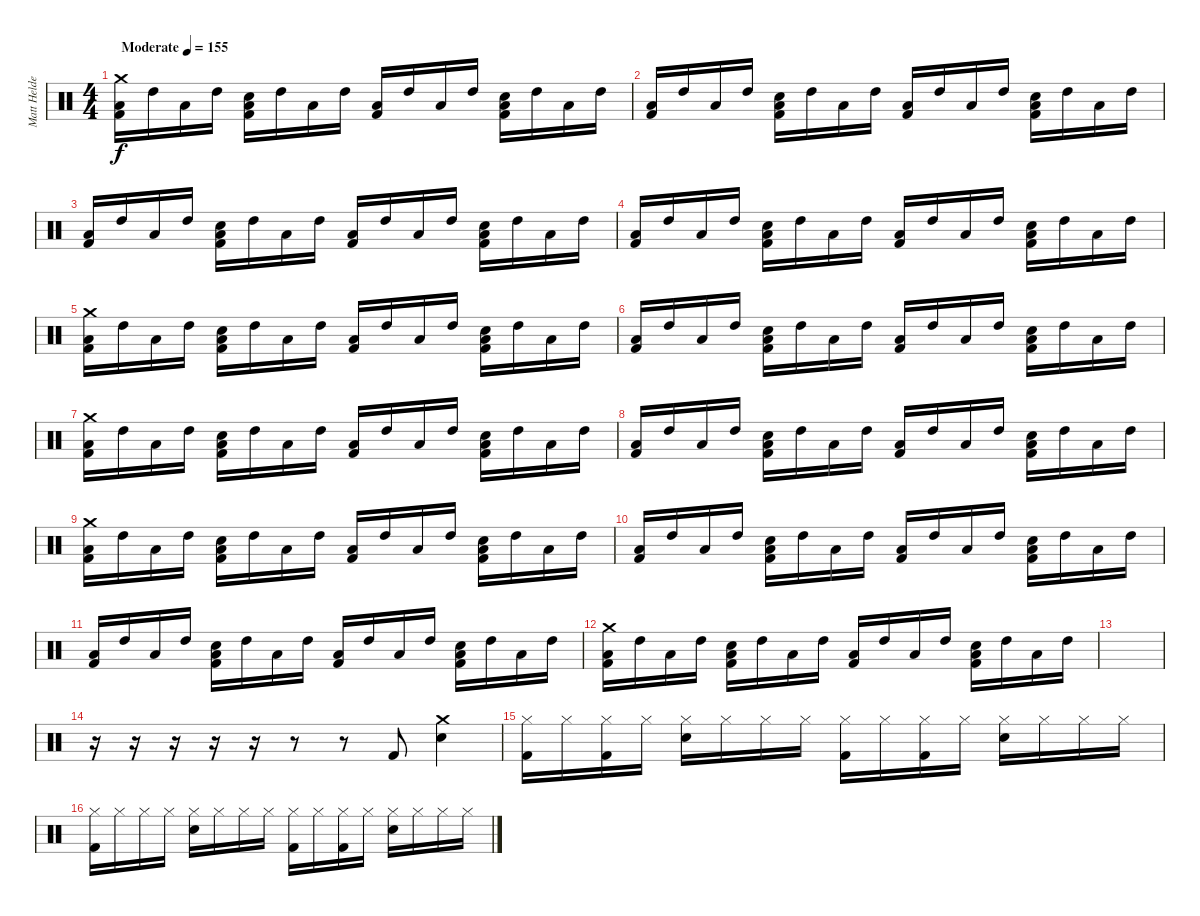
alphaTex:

\track ("Matt Helders" "Matt Helde") {instrument percussion}
\staff {score}
\articulation defaults
\ts (4 4)
\tempo (155 "Moderate")
\clef neutral
\ks c
("Low Tom (hit)" "Kick (hit) 2" "Crash medium (hit)").16{dy f} "High Tom (hit)".16 "Low Tom (hit)".16 "High Tom (hit)".16 ("Low Tom (hit)" "Kick (hit) 2" "Snare (hit) 2").16 "High Tom (hit)".16 "Low Tom (hit)".16 "High Tom (hit)".16 ("Low Tom (hit)" "Kick (hit) 2").16 "High Tom (hit)".16 "Low Tom (hit)".16 "High Tom (hit)".16 ("Low Tom (hit)" "Kick (hit) 2" "Snare (hit) 2").16 "High Tom (hit)".16 "Low Tom (hit)".16 "High Tom (hit)".16 |
("Low Tom (hit)" "Kick (hit) 2").16 "High Tom (hit)".16 "Low Tom (hit)".16 "High Tom (hit)".16 ("Low Tom (hit)" "Kick (hit) 2" "Snare (hit) 2").16 "High Tom (hit)".16 "Low Tom (hit)".16 "High Tom (hit)".16 ("Low Tom (hit)" "Kick (hit) 2").16 "High Tom (hit)".16 "Low Tom (hit)".16 "High Tom (hit)".16 ("Low Tom (hit)" "Kick (hit) 2" "Snare (hit) 2").16 "High Tom (hit)".16 "Low Tom (hit)".16 "High Tom (hit)".16 |
("Low Tom (hit)" "Kick (hit) 2").16 "High Tom (hit)".16 "Low Tom (hit)".16 "High Tom (hit)".16 ("Low Tom (hit)" "Kick (hit) 2" "Snare (hit) 2").16 "High Tom (hit)".16 "Low Tom (hit)".16 "High Tom (hit)".16 ("Low Tom (hit)" "Kick (hit) 2").16 "High Tom (hit)".16 "Low Tom (hit)".16 "High Tom (hit)".16 ("Low Tom (hit)" "Kick (hit) 2" "Snare (hit) 2").16 "High Tom (hit)".16 "Low Tom (hit)".16 "High Tom (hit)".16 |
("Low Tom (hit)" "Kick (hit) 2").16 "High Tom (hit)".16 "Low Tom (hit)".16 "High Tom (hit)".16 ("Low Tom (hit)" "Kick (hit) 2" "Snare (hit) 2").16 "High Tom (hit)".16 "Low Tom (hit)".16 "High Tom (hit)".16 ("Low Tom (hit)" "Kick (hit) 2").16 "High Tom (hit)".16 "Low Tom (hit)".16 "High Tom (hit)".16 ("Low Tom (hit)" "Kick (hit) 2" "Snare (hit) 2").16 "High Tom (hit)".16 "Low Tom (hit)".16 "High Tom (hit)".16 |
("Low Tom (hit)" "Kick (hit) 2" "Crash medium (hit)").16 "High Tom (hit)".16 "Low Tom (hit)".16 "High Tom (hit)".16 ("Low Tom (hit)" "Kick (hit) 2" "Snare (hit) 2").16 "High Tom (hit)".16 "Low Tom (hit)".16 "High Tom (hit)".16 ("Low Tom (hit)" "Kick (hit) 2").16 "High Tom (hit)".16 "Low Tom (hit)".16 "High Tom (hit)".16 ("Low Tom (hit)" "Kick (hit) 2" "Snare (hit) 2").16 "High Tom (hit)".16 "Low Tom (hit)".16 "High Tom (hit)".16 |
("Low Tom (hit)" "Kick (hit) 2").16 "High Tom (hit)".16 "Low Tom (hit)".16 "High Tom (hit)".16 ("Low Tom (hit)" "Kick (hit) 2" "Snare (hit) 2").16 "High Tom (hit)".16 "Low Tom (hit)".16 "High Tom (hit)".16 ("Low Tom (hit)" "Kick (hit) 2").16 "High Tom (hit)".16 "Low Tom (hit)".16 "High Tom (hit)".16 ("Low Tom (hit)" "Kick (hit) 2" "Snare (hit) 2").16 "High Tom (hit)".16 "Low Tom (hit)".16 "High Tom (hit)".16 |
("Low Tom (hit)" "Kick (hit) 2" "Crash medium (hit)").16 "High Tom (hit)".16 "Low Tom (hit)".16 "High Tom (hit)".16 ("Low Tom (hit)" "Kick (hit) 2" "Snare (hit) 2").16 "High Tom (hit)".16 "Low Tom (hit)".16 "High Tom (hit)".16 ("Low Tom (hit)" "Kick (hit) 2").16 "High Tom (hit)".16 "Low Tom (hit)".16 "High Tom (hit)".16 ("Low Tom (hit)" "Kick (hit) 2" "Snare (hit) 2").16 "High Tom (hit)".16 "Low Tom (hit)".16 "High Tom (hit)".16 |
("Low Tom (hit)" "Kick (hit) 2").16 "High Tom (hit)".16 "Low Tom (hit)".16 "High Tom (hit)".16 ("Low Tom (hit)" "Kick (hit) 2" "Snare (hit) 2").16 "High Tom (hit)".16 "Low Tom (hit)".16 "High Tom (hit)".16 ("Low Tom (hit)" "Kick (hit) 2").16 "High Tom (hit)".16 "Low Tom (hit)".16 "High Tom (hit)".16 ("Low Tom (hit)" "Kick (hit) 2" "Snare (hit) 2").16 "High Tom (hit)".16 "Low Tom (hit)".16 "High Tom (hit)".16 |
("Low Tom (hit)" "Kick (hit) 2" "Crash medium (hit)").16 "High Tom (hit)".16 "Low Tom (hit)".16 "High Tom (hit)".16 ("Low Tom (hit)" "Kick (hit) 2" "Snare (hit) 2").16 "High Tom (hit)".16 "Low Tom (hit)".16 "High Tom (hit)".16 ("Low Tom (hit)" "Kick (hit) 2").16 "High Tom (hit)".16 "Low Tom (hit)".16 "High Tom (hit)".16 ("Low Tom (hit)" "Kick (hit) 2" "Snare (hit) 2").16 "High Tom (hit)".16 "Low Tom (hit)".16 "High Tom (hit)".16 |
("Low Tom (hit)" "Kick (hit) 2").16 "High Tom (hit)".16 "Low Tom (hit)".16 "High Tom (hit)".16 ("Low Tom (hit)" "Kick (hit) 2" "Snare (hit) 2").16 "High Tom (hit)".16 "Low Tom (hit)".16 "High Tom (hit)".16 ("Low Tom (hit)" "Kick (hit) 2").16 "High Tom (hit)".16 "Low Tom (hit)".16 "High Tom (hit)".16 ("Low Tom (hit)" "Kick (hit) 2" "Snare (hit) 2").16 "High Tom (hit)".16 "Low Tom (hit)".16 "High Tom (hit)".16 |
("Low Tom (hit)" "Kick (hit) 2").16 "High Tom (hit)".16 "Low Tom (hit)".16 "High Tom (hit)".16 ("Low Tom (hit)" "Kick (hit) 2" "Snare (hit) 2").16 "High Tom (hit)".16 "Low Tom (hit)".16 "High Tom (hit)".16 ("Low Tom (hit)" "Kick (hit) 2").16 "High Tom (hit)".16 "Low Tom (hit)".16 "High Tom (hit)".16 ("Low Tom (hit)" "Kick (hit) 2" "Snare (hit) 2").16 "High Tom (hit)".16 "Low Tom (hit)".16 "High Tom (hit)".16 |
("Low Tom (hit)" "Kick (hit) 2" "Crash medium (hit)").16 "High Tom (hit)".16 "Low Tom (hit)".16 "High Tom (hit)".16 ("Low Tom (hit)" "Kick (hit) 2" "Snare (hit) 2").16 "High Tom (hit)".16 "Low Tom (hit)".16 "High Tom (hit)".16 ("Low Tom (hit)" "Kick (hit) 2").16 "High Tom (hit)".16 "Low Tom (hit)".16 "High Tom (hit)".16 ("Low Tom (hit)" "Kick (hit) 2" "Snare (hit) 2").16 "High Tom (hit)".16 "Low Tom (hit)".16 "High Tom (hit)".16 |
|
r.16 r.16 r.16 r.16 r.16 r.8 r.8 "Kick (hit) 2".8 ("Snare (hit) 2" "Crash medium (hit)").4 |
("Hi-Hat (closed)" "Kick (hit) 2").16 "Hi-Hat (closed)".16 ("Hi-Hat (closed)" "Kick (hit) 2").16 "Hi-Hat (closed)".16 ("Hi-Hat (closed)" "Snare (hit) 2").16 "Hi-Hat (closed)".16 "Hi-Hat (closed)".16 "Hi-Hat (closed)".16 ("Hi-Hat (closed)" "Kick (hit) 2").16 "Hi-Hat (closed)".16 ("Hi-Hat (closed)" "Kick (hit) 2").16 "Hi-Hat (closed)".16 ("Hi-Hat (closed)" "Snare (hit) 2").16 "Hi-Hat (closed)".16 "Hi-Hat (closed)".16 "Hi-Hat (closed)".16 |
("Hi-Hat (closed)" "Kick (hit) 2").16 "Hi-Hat (closed)".16 "Hi-Hat (closed)".16 "Hi-Hat (closed)".16 ("Hi-Hat (closed)" "Snare (hit) 2").16 "Hi-Hat (closed)".16 "Hi-Hat (closed)".16 "Hi-Hat (closed)".16 ("Hi-Hat (closed)" "Kick (hit) 2").16 "Hi-Hat (closed)".16 ("Hi-Hat (closed)" "Kick (hit) 2").16 "Hi-Hat (closed)".16 ("Hi-Hat (closed)" "Snare (hit) 2").16 "Hi-Hat (closed)".16 "Hi-Hat (closed)".16 "Hi-Hat (closed)".16
